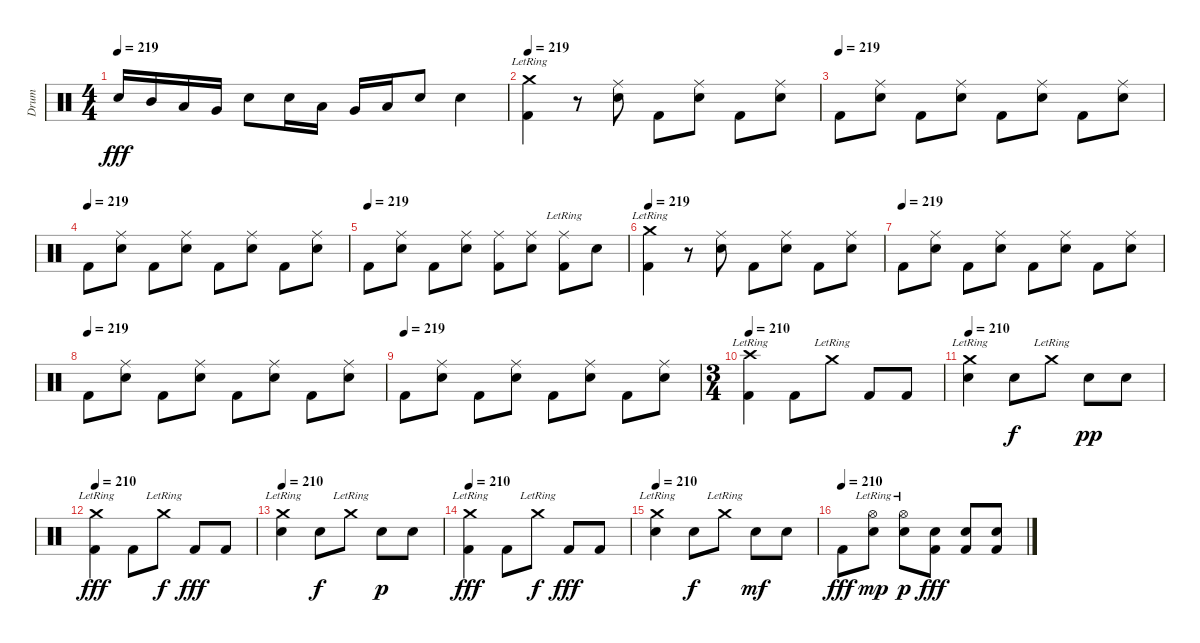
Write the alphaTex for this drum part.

\track ("Drum" "Drum") {instrument percussion}
\staff {score}
\articulation defaults
\ts (4 4)
\tempo 219
\clef neutral
\ks c "Electric Snare (hit)".16{dy fff} "Mid Tom (hit)".16 "Low Tom (hit)".16 "Very Low Tom (hit)".16 "Electric Snare (hit)".8 "Electric Snare (hit)".16 "Low Tom (hit)".16 "Very Low Tom (hit)".16 "Low Floor Tom (hit)".16 "Electric Snare (hit)".8 "Electric Snare (hit)".4
|
\tempo 219
("Crash medium (hit)"{lr} "Kick (hit) 2").4 r.8 ("Ride (middle)" "Electric Snare (hit)").8 "Kick (hit) 2".8 ("Ride (middle)" "Electric Snare (hit)").8 "Kick (hit) 2".8 ("Ride (middle)" "Electric Snare (hit)").8 |
\tempo (219)
"Kick (hit) 2".8 ("Ride (middle)" "Electric Snare (hit)").8 "Kick (hit) 2".8 ("Ride (middle)" "Electric Snare (hit)").8 "Kick (hit) 2".8 ("Ride (middle)" "Electric Snare (hit)").8 "Kick (hit) 2".8 ("Ride (middle)" "Electric Snare (hit)").8 |
\tempo (219)
"Kick (hit) 2".8 ("Ride (middle)" "Electric Snare (hit)").8 "Kick (hit) 2".8 ("Ride (middle)" "Electric Snare (hit)").8 "Kick (hit) 2".8 ("Ride (middle)" "Electric Snare (hit)").8 "Kick (hit) 2".8 ("Ride (middle)" "Electric Snare (hit)").8 |
\tempo (219)
"Kick (hit) 2".8 ("Ride (middle)" "Electric Snare (hit)").8 "Kick (hit) 2".8 ("Ride (middle)" "Electric Snare (hit)").8 ("Ride (middle)" "Kick (hit) 2").8 ("Ride (middle)" "Electric Snare (hit)").8 ("Ride (middle)"{lr} "Kick (hit) 2").8 "Electric Snare (hit)".8 |
\tempo 219
("Crash medium (hit)"{lr} "Kick (hit) 2").4 r.8 ("Ride (middle)" "Electric Snare (hit)").8 "Kick (hit) 2".8 ("Ride (middle)" "Electric Snare (hit)").8 "Kick (hit) 2".8 ("Ride (middle)" "Electric Snare (hit)").8 |
\tempo (219)
"Kick (hit) 2".8 ("Ride (middle)" "Electric Snare (hit)").8 "Kick (hit) 2".8 ("Ride (middle)" "Electric Snare (hit)").8 "Kick (hit) 2".8 ("Ride (middle)" "Electric Snare (hit)").8 "Kick (hit) 2".8 ("Ride (middle)" "Electric Snare (hit)").8 |
\tempo (219)
"Kick (hit) 2".8 ("Ride (middle)" "Electric Snare (hit)").8 "Kick (hit) 2".8 ("Ride (middle)" "Electric Snare (hit)").8 "Kick (hit) 2".8 ("Ride (middle)" "Electric Snare (hit)").8 "Kick (hit) 2".8 ("Ride (middle)" "Electric Snare (hit)").8 |
\tempo (219)
"Kick (hit) 2".8 ("Ride (middle)" "Electric Snare (hit)").8 "Kick (hit) 2".8 ("Ride (middle)" "Electric Snare (hit)").8 "Kick (hit) 2".8 ("Ride (middle)" "Electric Snare (hit)").8 "Kick (hit) 2".8 ("Ride (middle)" "Electric Snare (hit)").8 |
\ts (3 4)
\tempo 210
("Crash high (hit)"{lr} "Kick (hit) 2").4 "Kick (hit) 2".8 "Crash medium (hit)"{lr}.8 "Kick (hit) 2".8 "Kick (hit) 2".8 |
\tempo 210
("Crash medium (hit)"{lr} "Electric Snare (hit)").4 "Electric Snare (hit)".8{dy f} "Crash medium (hit)"{lr}.8 "Electric Snare (hit)".8{dy pp} "Electric Snare (hit)".8 |
\tempo 210
("Crash medium (hit)"{lr} "Kick (hit) 2").4{dy fff} "Kick (hit) 2".8 "Crash medium (hit)"{lr}.8{dy f} "Kick (hit) 2".8{dy fff} "Kick (hit) 2".8 |
\tempo 210
("Crash medium (hit)"{lr} "Electric Snare (hit)").4 "Electric Snare (hit)".8{dy f} "Crash medium (hit)"{lr}.8 "Electric Snare (hit)".8{dy p} "Electric Snare (hit)".8 |
\tempo 210
("Crash medium (hit)"{lr} "Kick (hit) 2").4{dy fff} "Kick (hit) 2".8 "Crash medium (hit)"{lr}.8{dy f} "Kick (hit) 2".8{dy fff} "Kick (hit) 2".8 |
\tempo 210
("Crash medium (hit)"{lr} "Electric Snare (hit)").4 "Electric Snare (hit)".8{dy f} "Crash medium (hit)"{lr}.8 "Electric Snare (hit)".8{dy mf} "Electric Snare (hit)".8 |
\tempo (210)
"Kick (hit) 2".8{dy fff} ("Hi-Hat (open)"{lr} "Electric Snare (hit)").8{dy mp} ("Hi-Hat (open)"{lr} "Electric Snare (hit)").8{dy p} ("Electric Snare (hit)" "Kick (hit) 2").8{dy fff} ("Electric Snare (hit)" "Kick (hit) 2").8 ("Electric Snare (hit)" "Kick (hit) 2").8
